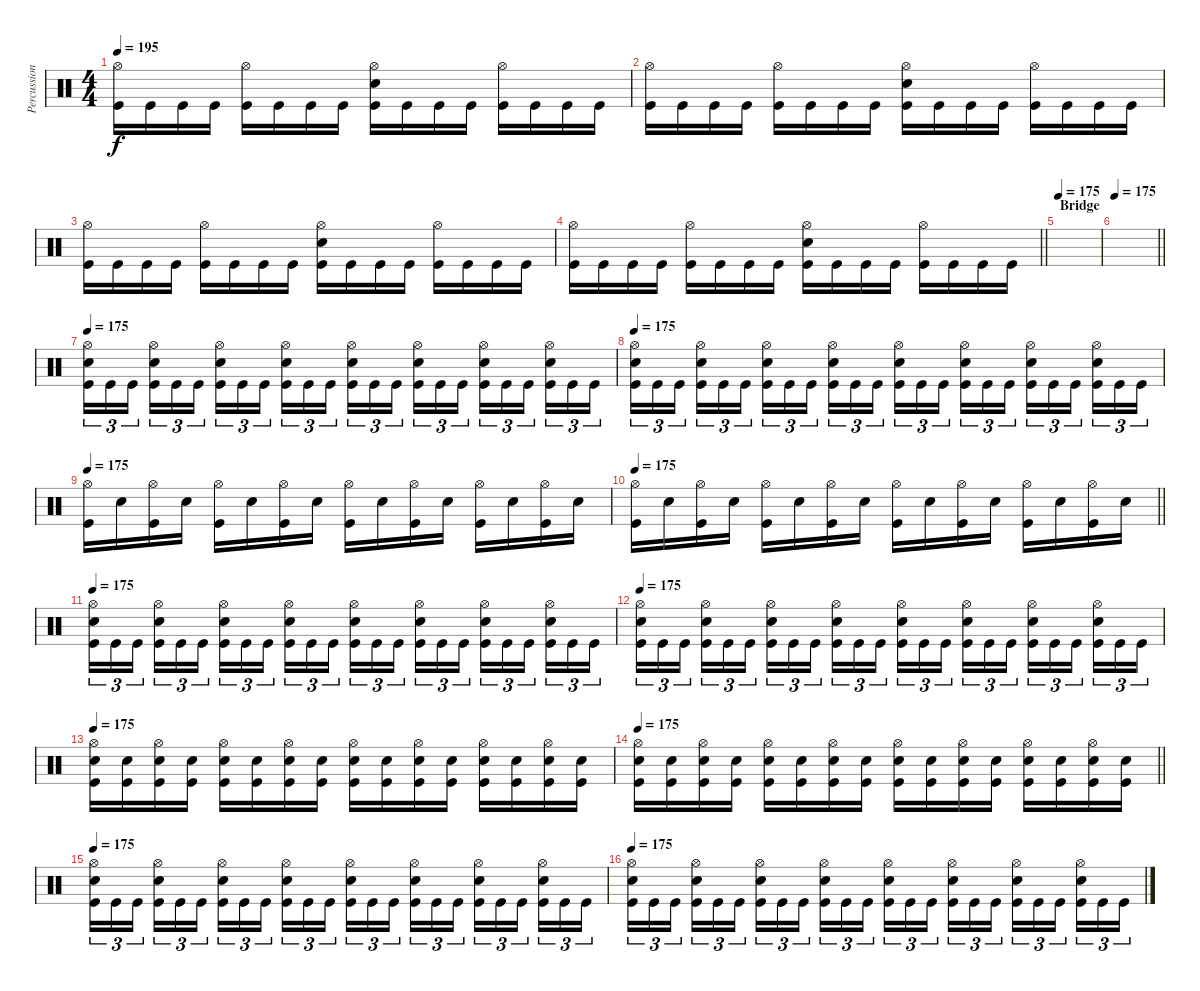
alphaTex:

\track ("Percussion" "Percussion") {instrument percussion}
\staff {score}
\articulation defaults
\ts (4 4)
\tempo 195
\clef neutral
\ks c
("Hi-Hat (open)" "Kick (hit)").16{dy f} "Kick (hit)".16 "Kick (hit)".16 "Kick (hit)".16 ("Hi-Hat (open)" "Kick (hit)").16 "Kick (hit)".16 "Kick (hit)".16 "Kick (hit)".16 ("Hi-Hat (open)" "Electric Snare (hit)" "Kick (hit)").16 "Kick (hit)".16 "Kick (hit)".16 "Kick (hit)".16 ("Hi-Hat (open)" "Kick (hit)").16 "Kick (hit)".16 "Kick (hit)".16 "Kick (hit)".16 |
("Hi-Hat (open)" "Kick (hit)").16 "Kick (hit)".16 "Kick (hit)".16 "Kick (hit)".16 ("Hi-Hat (open)" "Kick (hit)").16 "Kick (hit)".16 "Kick (hit)".16 "Kick (hit)".16 ("Hi-Hat (open)" "Electric Snare (hit)" "Kick (hit)").16 "Kick (hit)".16 "Kick (hit)".16 "Kick (hit)".16 ("Hi-Hat (open)" "Kick (hit)").16 "Kick (hit)".16 "Kick (hit)".16 "Kick (hit)".16 |
("Hi-Hat (open)" "Kick (hit)").16 "Kick (hit)".16 "Kick (hit)".16 "Kick (hit)".16 ("Hi-Hat (open)" "Kick (hit)").16 "Kick (hit)".16 "Kick (hit)".16 "Kick (hit)".16 ("Hi-Hat (open)" "Electric Snare (hit)" "Kick (hit)").16 "Kick (hit)".16 "Kick (hit)".16 "Kick (hit)".16 ("Hi-Hat (open)" "Kick (hit)").16 "Kick (hit)".16 "Kick (hit)".16 "Kick (hit)".16 |
\barLineRight lightlight
("Hi-Hat (open)" "Kick (hit)").16 "Kick (hit)".16 "Kick (hit)".16 "Kick (hit)".16 ("Hi-Hat (open)" "Kick (hit)").16 "Kick (hit)".16 "Kick (hit)".16 "Kick (hit)".16 ("Hi-Hat (open)" "Electric Snare (hit)" "Kick (hit)").16 "Kick (hit)".16 "Kick (hit)".16 "Kick (hit)".16 ("Hi-Hat (open)" "Kick (hit)").16 "Kick (hit)".16 "Kick (hit)".16 "Kick (hit)".16 |
\section ("" "Bridge")
\tempo 175
|
\tempo 175
\barLineRight lightlight
|
\tempo 175
("Hi-Hat (open)" "Electric Snare (hit)" "Kick (hit)").16{tu (3 2)} "Kick (hit)".16{tu (3 2)} "Kick (hit)".16{tu (3 2)} ("Hi-Hat (open)" "Electric Snare (hit)" "Kick (hit)").16{tu (3 2)} "Kick (hit)".16{tu (3 2)} "Kick (hit)".16{tu (3 2)} ("Hi-Hat (open)" "Electric Snare (hit)" "Kick (hit)").16{tu (3 2)} "Kick (hit)".16{tu (3 2)} "Kick (hit)".16{tu (3 2)} ("Hi-Hat (open)" "Electric Snare (hit)" "Kick (hit)").16{tu (3 2)} "Kick (hit)".16{tu (3 2)} "Kick (hit)".16{tu (3 2)} ("Hi-Hat (open)" "Electric Snare (hit)" "Kick (hit)").16{tu (3 2)} "Kick (hit)".16{tu (3 2)} "Kick (hit)".16{tu (3 2)} ("Hi-Hat (open)" "Electric Snare (hit)" "Kick (hit)").16{tu (3 2)} "Kick (hit)".16{tu (3 2)} "Kick (hit)".16{tu (3 2)} ("Hi-Hat (open)" "Electric Snare (hit)" "Kick (hit)").16{tu (3 2)} "Kick (hit)".16{tu (3 2)} "Kick (hit)".16{tu (3 2)} ("Hi-Hat (open)" "Electric Snare (hit)" "Kick (hit)").16{tu (3 2)} "Kick (hit)".16{tu (3 2)} "Kick (hit)".16{tu (3 2)} |
\tempo 175
("Hi-Hat (open)" "Electric Snare (hit)" "Kick (hit)").16{tu (3 2)} "Kick (hit)".16{tu (3 2)} "Kick (hit)".16{tu (3 2)} ("Hi-Hat (open)" "Electric Snare (hit)" "Kick (hit)").16{tu (3 2)} "Kick (hit)".16{tu (3 2)} "Kick (hit)".16{tu (3 2)} ("Hi-Hat (open)" "Electric Snare (hit)" "Kick (hit)").16{tu (3 2)} "Kick (hit)".16{tu (3 2)} "Kick (hit)".16{tu (3 2)} ("Hi-Hat (open)" "Electric Snare (hit)" "Kick (hit)").16{tu (3 2)} "Kick (hit)".16{tu (3 2)} "Kick (hit)".16{tu (3 2)} ("Hi-Hat (open)" "Electric Snare (hit)" "Kick (hit)").16{tu (3 2)} "Kick (hit)".16{tu (3 2)} "Kick (hit)".16{tu (3 2)} ("Hi-Hat (open)" "Electric Snare (hit)" "Kick (hit)").16{tu (3 2)} "Kick (hit)".16{tu (3 2)} "Kick (hit)".16{tu (3 2)} ("Hi-Hat (open)" "Electric Snare (hit)" "Kick (hit)").16{tu (3 2)} "Kick (hit)".16{tu (3 2)} "Kick (hit)".16{tu (3 2)} ("Hi-Hat (open)" "Electric Snare (hit)" "Kick (hit)").16{tu (3 2)} "Kick (hit)".16{tu (3 2)} "Kick (hit)".16{tu (3 2)} |
\tempo 175
("Hi-Hat (open)" "Kick (hit)").16 "Electric Snare (hit)".16 ("Hi-Hat (open)" "Kick (hit)").16 "Electric Snare (hit)".16 ("Hi-Hat (open)" "Kick (hit)").16 "Electric Snare (hit)".16 ("Hi-Hat (open)" "Kick (hit)").16 "Electric Snare (hit)".16 ("Hi-Hat (open)" "Kick (hit)").16 "Electric Snare (hit)".16 ("Hi-Hat (open)" "Kick (hit)").16 "Electric Snare (hit)".16 ("Hi-Hat (open)" "Kick (hit)").16 "Electric Snare (hit)".16 ("Hi-Hat (open)" "Kick (hit)").16 "Electric Snare (hit)".16 |
\tempo 175
\barLineRight lightlight
("Hi-Hat (open)" "Kick (hit)").16 "Electric Snare (hit)".16 ("Hi-Hat (open)" "Kick (hit)").16 "Electric Snare (hit)".16 ("Hi-Hat (open)" "Kick (hit)").16 "Electric Snare (hit)".16 ("Hi-Hat (open)" "Kick (hit)").16 "Electric Snare (hit)".16 ("Hi-Hat (open)" "Kick (hit)").16 "Electric Snare (hit)".16 ("Hi-Hat (open)" "Kick (hit)").16 "Electric Snare (hit)".16 ("Hi-Hat (open)" "Kick (hit)").16 "Electric Snare (hit)".16 ("Hi-Hat (open)" "Kick (hit)").16 "Electric Snare (hit)".16 |
\tempo 175
("Hi-Hat (open)" "Electric Snare (hit)" "Kick (hit)").16{tu (3 2)} "Kick (hit)".16{tu (3 2)} "Kick (hit)".16{tu (3 2)} ("Hi-Hat (open)" "Electric Snare (hit)" "Kick (hit)").16{tu (3 2)} "Kick (hit)".16{tu (3 2)} "Kick (hit)".16{tu (3 2)} ("Hi-Hat (open)" "Electric Snare (hit)" "Kick (hit)").16{tu (3 2)} "Kick (hit)".16{tu (3 2)} "Kick (hit)".16{tu (3 2)} ("Hi-Hat (open)" "Electric Snare (hit)" "Kick (hit)").16{tu (3 2)} "Kick (hit)".16{tu (3 2)} "Kick (hit)".16{tu (3 2)} ("Hi-Hat (open)" "Electric Snare (hit)" "Kick (hit)").16{tu (3 2)} "Kick (hit)".16{tu (3 2)} "Kick (hit)".16{tu (3 2)} ("Hi-Hat (open)" "Electric Snare (hit)" "Kick (hit)").16{tu (3 2)} "Kick (hit)".16{tu (3 2)} "Kick (hit)".16{tu (3 2)} ("Hi-Hat (open)" "Electric Snare (hit)" "Kick (hit)").16{tu (3 2)} "Kick (hit)".16{tu (3 2)} "Kick (hit)".16{tu (3 2)} ("Hi-Hat (open)" "Electric Snare (hit)" "Kick (hit)").16{tu (3 2)} "Kick (hit)".16{tu (3 2)} "Kick (hit)".16{tu (3 2)} |
\tempo 175
("Hi-Hat (open)" "Electric Snare (hit)" "Kick (hit)").16{tu (3 2)} "Kick (hit)".16{tu (3 2)} "Kick (hit)".16{tu (3 2)} ("Hi-Hat (open)" "Electric Snare (hit)" "Kick (hit)").16{tu (3 2)} "Kick (hit)".16{tu (3 2)} "Kick (hit)".16{tu (3 2)} ("Hi-Hat (open)" "Electric Snare (hit)" "Kick (hit)").16{tu (3 2)} "Kick (hit)".16{tu (3 2)} "Kick (hit)".16{tu (3 2)} ("Hi-Hat (open)" "Electric Snare (hit)" "Kick (hit)").16{tu (3 2)} "Kick (hit)".16{tu (3 2)} "Kick (hit)".16{tu (3 2)} ("Hi-Hat (open)" "Electric Snare (hit)" "Kick (hit)").16{tu (3 2)} "Kick (hit)".16{tu (3 2)} "Kick (hit)".16{tu (3 2)} ("Hi-Hat (open)" "Electric Snare (hit)" "Kick (hit)").16{tu (3 2)} "Kick (hit)".16{tu (3 2)} "Kick (hit)".16{tu (3 2)} ("Hi-Hat (open)" "Electric Snare (hit)" "Kick (hit)").16{tu (3 2)} "Kick (hit)".16{tu (3 2)} "Kick (hit)".16{tu (3 2)} ("Hi-Hat (open)" "Electric Snare (hit)" "Kick (hit)").16{tu (3 2)} "Kick (hit)".16{tu (3 2)} "Kick (hit)".16{tu (3 2)} |
\tempo 175
("Hi-Hat (open)" "Electric Snare (hit)" "Kick (hit)").16 ("Electric Snare (hit)" "Kick (hit)").16 ("Hi-Hat (open)" "Electric Snare (hit)" "Kick (hit)").16 ("Electric Snare (hit)" "Kick (hit)").16 ("Hi-Hat (open)" "Electric Snare (hit)" "Kick (hit)").16 ("Electric Snare (hit)" "Kick (hit)").16 ("Hi-Hat (open)" "Electric Snare (hit)" "Kick (hit)").16 ("Electric Snare (hit)" "Kick (hit)").16 ("Hi-Hat (open)" "Electric Snare (hit)" "Kick (hit)").16 ("Electric Snare (hit)" "Kick (hit)").16 ("Hi-Hat (open)" "Electric Snare (hit)" "Kick (hit)").16 ("Electric Snare (hit)" "Kick (hit)").16 ("Hi-Hat (open)" "Electric Snare (hit)" "Kick (hit)").16 ("Electric Snare (hit)" "Kick (hit)").16 ("Hi-Hat (open)" "Electric Snare (hit)" "Kick (hit)").16 ("Electric Snare (hit)" "Kick (hit)").16 |
\tempo 175
\barLineRight lightlight
("Hi-Hat (open)" "Electric Snare (hit)" "Kick (hit)").16 ("Electric Snare (hit)" "Kick (hit)").16 ("Hi-Hat (open)" "Electric Snare (hit)" "Kick (hit)").16 ("Electric Snare (hit)" "Kick (hit)").16 ("Hi-Hat (open)" "Electric Snare (hit)" "Kick (hit)").16 ("Electric Snare (hit)" "Kick (hit)").16 ("Hi-Hat (open)" "Electric Snare (hit)" "Kick (hit)").16 ("Electric Snare (hit)" "Kick (hit)").16 ("Hi-Hat (open)" "Electric Snare (hit)" "Kick (hit)").16 ("Electric Snare (hit)" "Kick (hit)").16 ("Hi-Hat (open)" "Electric Snare (hit)" "Kick (hit)").16 ("Electric Snare (hit)" "Kick (hit)").16 ("Hi-Hat (open)" "Electric Snare (hit)" "Kick (hit)").16 ("Electric Snare (hit)" "Kick (hit)").16 ("Hi-Hat (open)" "Electric Snare (hit)" "Kick (hit)").16 ("Electric Snare (hit)" "Kick (hit)").16 |
\tempo 175
("Hi-Hat (open)" "Electric Snare (hit)" "Kick (hit)").16{tu (3 2)} "Kick (hit)".16{tu (3 2)} "Kick (hit)".16{tu (3 2)} ("Hi-Hat (open)" "Electric Snare (hit)" "Kick (hit)").16{tu (3 2)} "Kick (hit)".16{tu (3 2)} "Kick (hit)".16{tu (3 2)} ("Hi-Hat (open)" "Electric Snare (hit)" "Kick (hit)").16{tu (3 2)} "Kick (hit)".16{tu (3 2)} "Kick (hit)".16{tu (3 2)} ("Hi-Hat (open)" "Electric Snare (hit)" "Kick (hit)").16{tu (3 2)} "Kick (hit)".16{tu (3 2)} "Kick (hit)".16{tu (3 2)} ("Hi-Hat (open)" "Electric Snare (hit)" "Kick (hit)").16{tu (3 2)} "Kick (hit)".16{tu (3 2)} "Kick (hit)".16{tu (3 2)} ("Hi-Hat (open)" "Electric Snare (hit)" "Kick (hit)").16{tu (3 2)} "Kick (hit)".16{tu (3 2)} "Kick (hit)".16{tu (3 2)} ("Hi-Hat (open)" "Electric Snare (hit)" "Kick (hit)").16{tu (3 2)} "Kick (hit)".16{tu (3 2)} "Kick (hit)".16{tu (3 2)} ("Hi-Hat (open)" "Electric Snare (hit)" "Kick (hit)").16{tu (3 2)} "Kick (hit)".16{tu (3 2)} "Kick (hit)".16{tu (3 2)} |
\tempo 175
("Hi-Hat (open)" "Electric Snare (hit)" "Kick (hit)").16{tu (3 2)} "Kick (hit)".16{tu (3 2)} "Kick (hit)".16{tu (3 2)} ("Hi-Hat (open)" "Electric Snare (hit)" "Kick (hit)").16{tu (3 2)} "Kick (hit)".16{tu (3 2)} "Kick (hit)".16{tu (3 2)} ("Hi-Hat (open)" "Electric Snare (hit)" "Kick (hit)").16{tu (3 2)} "Kick (hit)".16{tu (3 2)} "Kick (hit)".16{tu (3 2)} ("Hi-Hat (open)" "Electric Snare (hit)" "Kick (hit)").16{tu (3 2)} "Kick (hit)".16{tu (3 2)} "Kick (hit)".16{tu (3 2)} ("Hi-Hat (open)" "Electric Snare (hit)" "Kick (hit)").16{tu (3 2)} "Kick (hit)".16{tu (3 2)} "Kick (hit)".16{tu (3 2)} ("Hi-Hat (open)" "Electric Snare (hit)" "Kick (hit)").16{tu (3 2)} "Kick (hit)".16{tu (3 2)} "Kick (hit)".16{tu (3 2)} ("Hi-Hat (open)" "Electric Snare (hit)" "Kick (hit)").16{tu (3 2)} "Kick (hit)".16{tu (3 2)} "Kick (hit)".16{tu (3 2)} ("Hi-Hat (open)" "Electric Snare (hit)" "Kick (hit)").16{tu (3 2)} "Kick (hit)".16{tu (3 2)} "Kick (hit)".16{tu (3 2)}
